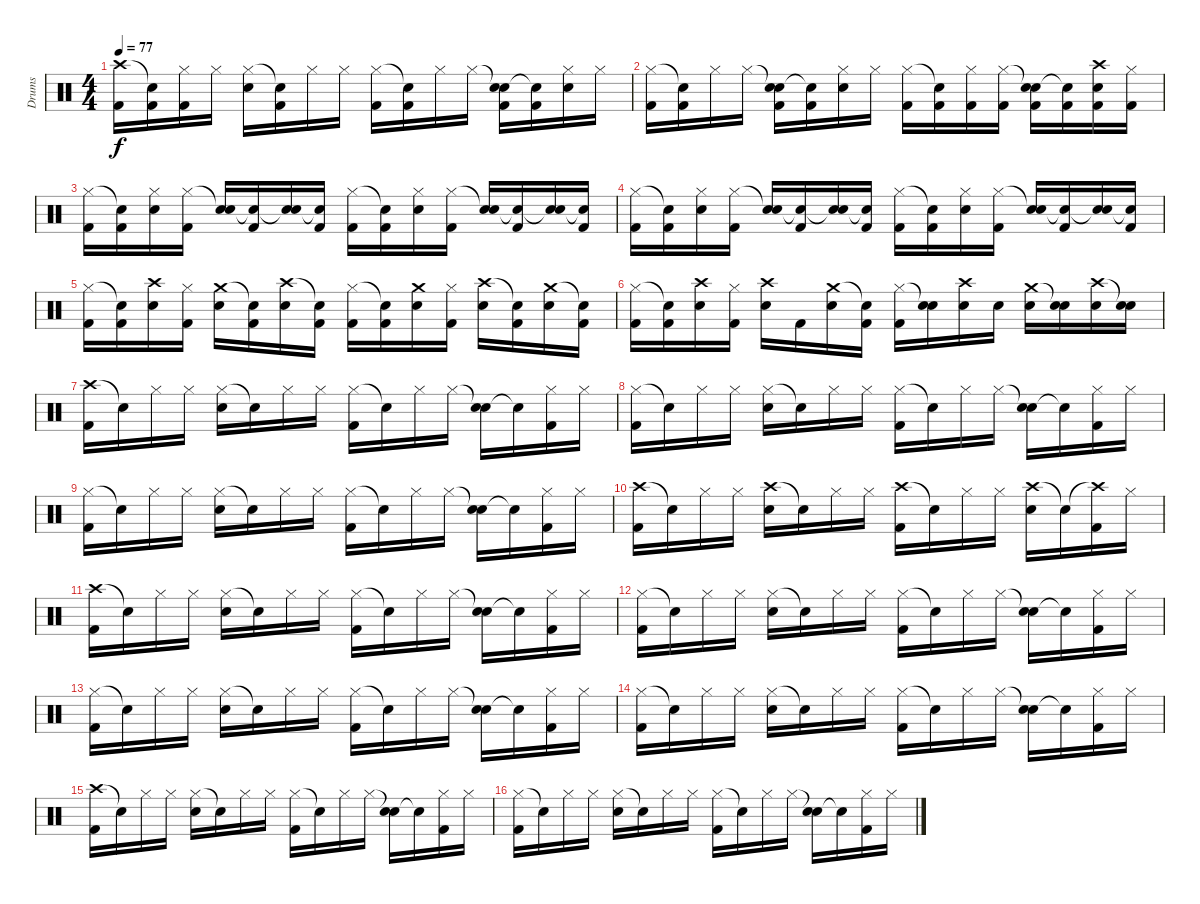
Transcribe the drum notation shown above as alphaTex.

\track ("Drums" "Drums") {instrument percussion}
\staff {score}
\articulation defaults
\ts (4 4)
\tempo 77
\clef neutral
\ks c
("Crash high (hit)" "Kick (hit) 2").16{dy f} ("Snare (hit)"{t} "Kick (hit) 2").16 ("Hi-Hat (closed)" "Kick (hit) 2").16 "Hi-Hat (closed)".16 ("Hi-Hat (closed)" "Electric Snare (hit)").16 ("Snare (hit)"{t} "Kick (hit) 2").16 "Hi-Hat (closed)".16 "Hi-Hat (closed)".16 ("Hi-Hat (closed)" "Kick (hit) 2").16 ("Snare (hit)"{t} "Kick (hit) 2").16 "Hi-Hat (closed)".16 "Hi-Hat (closed)".16 ("Snare (hit)"{t} "Electric Snare (hit)" "Kick (hit) 2").16 ("Snare (hit)"{t} "Kick (hit) 2").16 ("Hi-Hat (closed)" "Electric Snare (hit)").16 "Hi-Hat (closed)".16 |
("Hi-Hat (closed)" "Kick (hit) 2").16 ("Snare (hit)"{t} "Kick (hit) 2").16 "Hi-Hat (closed)".16 "Hi-Hat (closed)".16 ("Snare (hit)"{t} "Electric Snare (hit)" "Kick (hit) 2").16 ("Snare (hit)"{t} "Kick (hit) 2").16 ("Hi-Hat (closed)" "Electric Snare (hit)").16 "Hi-Hat (closed)".16 ("Hi-Hat (closed)" "Kick (hit) 2").16 ("Snare (hit)"{t} "Kick (hit) 2").16 ("Hi-Hat (closed)" "Kick (hit) 2").16 ("Hi-Hat (closed)" "Kick (hit) 2").16 ("Snare (hit)"{t} "Electric Snare (hit)" "Kick (hit) 2").16 ("Snare (hit)"{t} "Kick (hit) 2").16 ("Crash high (hit)" "Electric Snare (hit)" "Kick (hit) 2").16 ("Hi-Hat (closed)" "Kick (hit) 2").16 |
("Hi-Hat (closed)" "Kick (hit) 2").16 ("Snare (hit)"{t} "Kick (hit) 2").16 ("Hi-Hat (closed)" "Electric Snare (hit)").16 ("Hi-Hat (closed)" "Kick (hit) 2").16 ("Snare (hit)"{t} "Electric Snare (hit)").16 ("Snare (hit)"{t} "Kick (hit) 2").16 ("Snare (hit)"{t} "Electric Snare (hit)").16 ("Snare (hit)"{t} "Kick (hit) 2").16 ("Hi-Hat (closed)" "Kick (hit) 2").16 ("Snare (hit)"{t} "Kick (hit) 2").16 ("Hi-Hat (closed)" "Electric Snare (hit)").16 ("Hi-Hat (closed)" "Kick (hit) 2").16 ("Snare (hit)"{t} "Electric Snare (hit)").16 ("Snare (hit)"{t} "Kick (hit) 2").16 ("Snare (hit)"{t} "Electric Snare (hit)").16 ("Snare (hit)"{t} "Kick (hit) 2").16 |
("Hi-Hat (closed)" "Kick (hit) 2").16 ("Snare (hit)"{t} "Kick (hit) 2").16 ("Hi-Hat (closed)" "Electric Snare (hit)").16 ("Hi-Hat (closed)" "Kick (hit) 2").16 ("Snare (hit)"{t} "Electric Snare (hit)").16 ("Snare (hit)"{t} "Kick (hit) 2").16 ("Snare (hit)"{t} "Electric Snare (hit)").16 ("Snare (hit)"{t} "Kick (hit) 2").16 ("Hi-Hat (closed)" "Kick (hit) 2").16 ("Snare (hit)"{t} "Kick (hit) 2").16 ("Hi-Hat (closed)" "Electric Snare (hit)").16 ("Hi-Hat (closed)" "Kick (hit) 2").16 ("Snare (hit)"{t} "Electric Snare (hit)").16 ("Snare (hit)"{t} "Kick (hit) 2").16 ("Snare (hit)"{t} "Electric Snare (hit)").16 ("Snare (hit)"{t} "Kick (hit) 2").16 |
("Hi-Hat (closed)" "Kick (hit) 2").16 ("Snare (hit)"{t} "Kick (hit) 2").16 ("Crash high (hit)" "Electric Snare (hit)").16 ("Hi-Hat (closed)" "Kick (hit) 2").16 ("Crash medium (hit)" "Electric Snare (hit)").16 ("Snare (hit)"{t} "Kick (hit) 2").16 ("Crash high (hit)" "Electric Snare (hit)").16 ("Snare (hit)"{t} "Kick (hit) 2").16 ("Hi-Hat (closed)" "Kick (hit) 2").16 ("Snare (hit)"{t} "Kick (hit) 2").16 ("Crash medium (hit)" "Electric Snare (hit)").16 ("Hi-Hat (closed)" "Kick (hit) 2").16 ("Crash high (hit)" "Electric Snare (hit)").16 ("Snare (hit)"{t} "Kick (hit) 2").16 ("Crash medium (hit)" "Electric Snare (hit)").16 ("Snare (hit)"{t} "Kick (hit) 2").16 |
("Hi-Hat (closed)" "Kick (hit) 2").16 ("Snare (hit)"{t} "Kick (hit) 2").16 ("Crash high (hit)" "Electric Snare (hit)").16 ("Hi-Hat (closed)" "Kick (hit) 2").16 ("Crash high (hit)" "Electric Snare (hit)").16 "Kick (hit) 2".16 ("Crash medium (hit)" "Electric Snare (hit)").16 ("Snare (hit)"{t} "Kick (hit) 2").16 ("Hi-Hat (closed)" "Kick (hit) 2").16 ("Snare (hit)"{t} "Electric Snare (hit)").16 ("Crash high (hit)" "Electric Snare (hit)").16 "Electric Snare (hit)".16 ("Crash medium (hit)" "Electric Snare (hit)").16 ("Snare (hit)"{t} "Electric Snare (hit)").16 ("Crash high (hit)" "Electric Snare (hit)").16 ("Snare (hit)"{t} "Electric Snare (hit)").16 |
("Crash high (hit)" "Kick (hit) 2").16 "Snare (hit)"{t}.16 "Hi-Hat (closed)".16 "Hi-Hat (closed)".16 ("Hi-Hat (closed)" "Electric Snare (hit)").16 "Snare (hit)"{t}.16 "Hi-Hat (closed)".16 "Hi-Hat (closed)".16 ("Hi-Hat (closed)" "Kick (hit) 2").16 "Snare (hit)"{t}.16 "Hi-Hat (closed)".16 "Hi-Hat (closed)".16 ("Snare (hit)"{t} "Electric Snare (hit)").16 "Snare (hit)"{t}.16 ("Hi-Hat (closed)" "Kick (hit) 2").16 "Hi-Hat (closed)".16 |
("Hi-Hat (closed)" "Kick (hit) 2").16 "Snare (hit)"{t}.16 "Hi-Hat (closed)".16 "Hi-Hat (closed)".16 ("Hi-Hat (closed)" "Electric Snare (hit)").16 "Snare (hit)"{t}.16 "Hi-Hat (closed)".16 "Hi-Hat (closed)".16 ("Hi-Hat (closed)" "Kick (hit) 2").16 "Snare (hit)"{t}.16 "Hi-Hat (closed)".16 "Hi-Hat (closed)".16 ("Snare (hit)"{t} "Electric Snare (hit)").16 "Snare (hit)"{t}.16 ("Hi-Hat (closed)" "Kick (hit) 2").16 "Hi-Hat (closed)".16 |
("Hi-Hat (closed)" "Kick (hit) 2").16 "Snare (hit)"{t}.16 "Hi-Hat (closed)".16 "Hi-Hat (closed)".16 ("Hi-Hat (closed)" "Electric Snare (hit)").16 "Snare (hit)"{t}.16 "Hi-Hat (closed)".16 "Hi-Hat (closed)".16 ("Hi-Hat (closed)" "Kick (hit) 2").16 "Snare (hit)"{t}.16 "Hi-Hat (closed)".16 "Hi-Hat (closed)".16 ("Snare (hit)"{t} "Electric Snare (hit)").16 "Snare (hit)"{t}.16 ("Hi-Hat (closed)" "Kick (hit) 2").16 "Hi-Hat (closed)".16 |
("Crash high (hit)" "Kick (hit) 2").16 "Snare (hit)"{t}.16 "Hi-Hat (closed)".16 "Hi-Hat (closed)".16 ("Crash high (hit)" "Electric Snare (hit)").16 "Snare (hit)"{t}.16 "Hi-Hat (closed)".16 "Hi-Hat (closed)".16 ("Crash high (hit)" "Kick (hit) 2").16 "Snare (hit)"{t}.16 "Hi-Hat (closed)".16 "Hi-Hat (closed)".16 ("Crash high (hit)" "Electric Snare (hit)").16 "Snare (hit)"{t}.16 ("Crash high (hit)"{t} "Kick (hit) 2").16 "Hi-Hat (closed)".16 |
("Crash high (hit)" "Kick (hit) 2").16 "Snare (hit)"{t}.16 "Hi-Hat (closed)".16 "Hi-Hat (closed)".16 ("Hi-Hat (closed)" "Electric Snare (hit)").16 "Snare (hit)"{t}.16 "Hi-Hat (closed)".16 "Hi-Hat (closed)".16 ("Hi-Hat (closed)" "Kick (hit) 2").16 "Snare (hit)"{t}.16 "Hi-Hat (closed)".16 "Hi-Hat (closed)".16 ("Snare (hit)"{t} "Electric Snare (hit)").16 "Snare (hit)"{t}.16 ("Hi-Hat (closed)" "Kick (hit) 2").16 "Hi-Hat (closed)".16 |
("Hi-Hat (closed)" "Kick (hit) 2").16 "Snare (hit)"{t}.16 "Hi-Hat (closed)".16 "Hi-Hat (closed)".16 ("Hi-Hat (closed)" "Electric Snare (hit)").16 "Snare (hit)"{t}.16 "Hi-Hat (closed)".16 "Hi-Hat (closed)".16 ("Hi-Hat (closed)" "Kick (hit) 2").16 "Snare (hit)"{t}.16 "Hi-Hat (closed)".16 "Hi-Hat (closed)".16 ("Snare (hit)"{t} "Electric Snare (hit)").16 "Snare (hit)"{t}.16 ("Hi-Hat (closed)" "Kick (hit) 2").16 "Hi-Hat (closed)".16 |
("Hi-Hat (closed)" "Kick (hit) 2").16 "Snare (hit)"{t}.16 "Hi-Hat (closed)".16 "Hi-Hat (closed)".16 ("Hi-Hat (closed)" "Electric Snare (hit)").16 "Snare (hit)"{t}.16 "Hi-Hat (closed)".16 "Hi-Hat (closed)".16 ("Hi-Hat (closed)" "Kick (hit) 2").16 "Snare (hit)"{t}.16 "Hi-Hat (closed)".16 "Hi-Hat (closed)".16 ("Snare (hit)"{t} "Electric Snare (hit)").16 "Snare (hit)"{t}.16 ("Hi-Hat (closed)" "Kick (hit) 2").16 "Hi-Hat (closed)".16 |
("Hi-Hat (closed)" "Kick (hit) 2").16 "Snare (hit)"{t}.16 "Hi-Hat (closed)".16 "Hi-Hat (closed)".16 ("Hi-Hat (closed)" "Electric Snare (hit)").16 "Snare (hit)"{t}.16 "Hi-Hat (closed)".16 "Hi-Hat (closed)".16 ("Hi-Hat (closed)" "Kick (hit) 2").16 "Snare (hit)"{t}.16 "Hi-Hat (closed)".16 "Hi-Hat (closed)".16 ("Snare (hit)"{t} "Electric Snare (hit)").16 "Snare (hit)"{t}.16 ("Hi-Hat (closed)" "Kick (hit) 2").16 "Hi-Hat (closed)".16 |
("Crash high (hit)" "Kick (hit) 2").16 "Snare (hit)"{t}.16 "Hi-Hat (closed)".16 "Hi-Hat (closed)".16 ("Hi-Hat (closed)" "Electric Snare (hit)").16 "Snare (hit)"{t}.16 "Hi-Hat (closed)".16 "Hi-Hat (closed)".16 ("Hi-Hat (closed)" "Kick (hit) 2").16 "Snare (hit)"{t}.16 "Hi-Hat (closed)".16 "Hi-Hat (closed)".16 ("Snare (hit)"{t} "Electric Snare (hit)").16 "Snare (hit)"{t}.16 ("Hi-Hat (closed)" "Kick (hit) 2").16 "Hi-Hat (closed)".16 |
("Hi-Hat (closed)" "Kick (hit) 2").16 "Snare (hit)"{t}.16 "Hi-Hat (closed)".16 "Hi-Hat (closed)".16 ("Hi-Hat (closed)" "Electric Snare (hit)").16 "Snare (hit)"{t}.16 "Hi-Hat (closed)".16 "Hi-Hat (closed)".16 ("Hi-Hat (closed)" "Kick (hit) 2").16 "Snare (hit)"{t}.16 "Hi-Hat (closed)".16 "Hi-Hat (closed)".16 ("Snare (hit)"{t} "Electric Snare (hit)").16 "Snare (hit)"{t}.16 ("Hi-Hat (closed)" "Kick (hit) 2").16 "Hi-Hat (closed)".16
